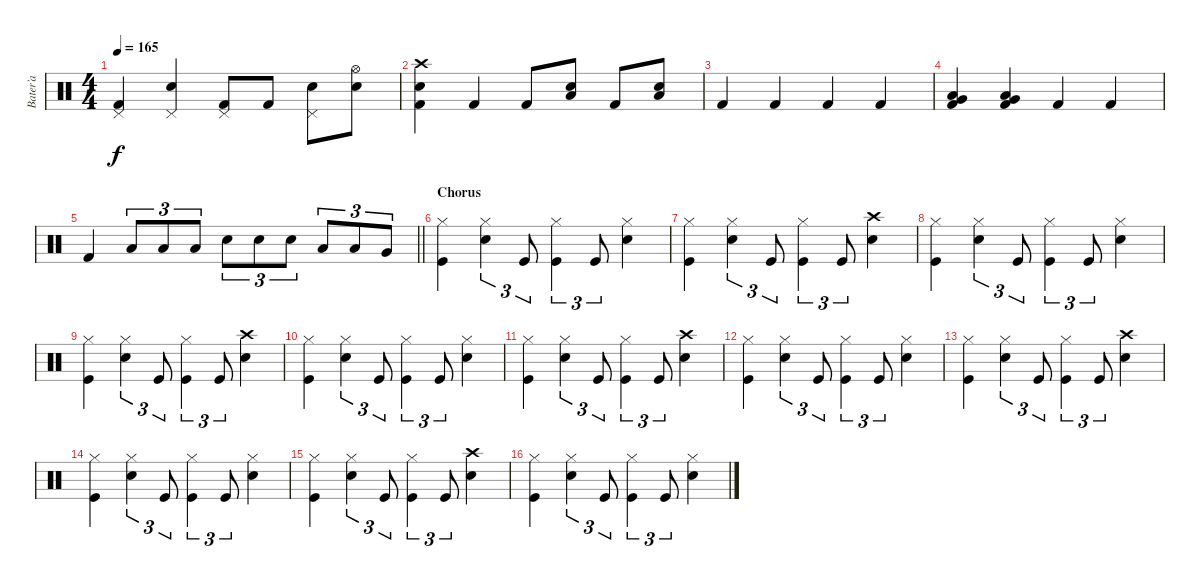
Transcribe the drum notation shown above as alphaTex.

\track ("Bater’a" "Bater’a") {instrument percussion}
\staff {score}
\articulation defaults
\ts (4 4)
\tempo 165
\clef neutral
\ks c
("Pedal Hi-Hat (hit)" "Kick (hit) 2").4{dy f} ("Pedal Hi-Hat (hit)" "Electric Snare (hit)").4 ("Pedal Hi-Hat (hit)" "Kick (hit) 2").8 "Kick (hit) 2".8 ("Pedal Hi-Hat (hit)" "Electric Snare (hit)").8 ("Hi-Hat (open)" "Electric Snare (hit)").8 |
("Crash high (hit)" "Electric Snare (hit)" "Kick (hit) 2").4 "Kick (hit) 2".4 "Kick (hit) 2".8 ("Electric Snare (hit)" "Low Floor Tom (hit)").8 "Kick (hit) 2".8 ("Electric Snare (hit)" "Low Floor Tom (hit)").8 |
"Kick (hit) 2".4 "Kick (hit) 2".4 "Kick (hit) 2".4 "Kick (hit) 2".4 |
("Very Low Tom (hit)" "Low Floor Tom (hit)" "Kick (hit) 2").4 ("Very Low Tom (hit)" "Low Floor Tom (hit)" "Kick (hit) 2").4 "Kick (hit) 2".4 "Kick (hit) 2".4 |
\barLineRight lightlight "Kick (hit) 2".4 "Low Tom (hit)".8{tu (3 2)} "Low Tom (hit)".8{tu (3 2)} "Low Tom (hit)".8{tu (3 2)} "Electric Snare (hit)".8{tu (3 2)} "Electric Snare (hit)".8{tu (3 2)} "Electric Snare (hit)".8{tu (3 2)} "Low Tom (hit)".8{tu (3 2)} "Low Tom (hit)".8{tu (3 2)} "Very Low Tom (hit)".8{tu (3 2)}
|
\section ("" "Chorus")
("Hi-Hat (closed)" "Kick (hit)").4 ("Hi-Hat (closed)" "Snare (hit) 2").4{tu (3 2)} "Kick (hit)".8{tu (3 2)} ("Hi-Hat (closed)" "Kick (hit)").4{tu (3 2)} "Kick (hit)".8{tu (3 2)} ("Hi-Hat (closed)" "Snare (hit) 2").4 |
("Hi-Hat (closed)" "Kick (hit)").4 ("Hi-Hat (closed)" "Snare (hit) 2").4{tu (3 2)} "Kick (hit)".8{tu (3 2)} ("Hi-Hat (closed)" "Kick (hit)").4{tu (3 2)} "Kick (hit)".8{tu (3 2)} ("Crash high (hit)" "Snare (hit) 2").4 |
("Hi-Hat (closed)" "Kick (hit)").4 ("Hi-Hat (closed)" "Snare (hit) 2").4{tu (3 2)} "Kick (hit)".8{tu (3 2)} ("Hi-Hat (closed)" "Kick (hit)").4{tu (3 2)} "Kick (hit)".8{tu (3 2)} ("Hi-Hat (closed)" "Snare (hit) 2").4 |
("Hi-Hat (closed)" "Kick (hit)").4 ("Hi-Hat (closed)" "Snare (hit) 2").4{tu (3 2)} "Kick (hit)".8{tu (3 2)} ("Hi-Hat (closed)" "Kick (hit)").4{tu (3 2)} "Kick (hit)".8{tu (3 2)} ("Crash high (hit)" "Snare (hit) 2").4 |
("Hi-Hat (closed)" "Kick (hit)").4 ("Hi-Hat (closed)" "Snare (hit) 2").4{tu (3 2)} "Kick (hit)".8{tu (3 2)} ("Hi-Hat (closed)" "Kick (hit)").4{tu (3 2)} "Kick (hit)".8{tu (3 2)} ("Hi-Hat (closed)" "Snare (hit) 2").4 |
("Hi-Hat (closed)" "Kick (hit)").4 ("Hi-Hat (closed)" "Snare (hit) 2").4{tu (3 2)} "Kick (hit)".8{tu (3 2)} ("Hi-Hat (closed)" "Kick (hit)").4{tu (3 2)} "Kick (hit)".8{tu (3 2)} ("Crash high (hit)" "Snare (hit) 2").4 |
("Hi-Hat (closed)" "Kick (hit)").4 ("Hi-Hat (closed)" "Snare (hit) 2").4{tu (3 2)} "Kick (hit)".8{tu (3 2)} ("Hi-Hat (closed)" "Kick (hit)").4{tu (3 2)} "Kick (hit)".8{tu (3 2)} ("Hi-Hat (closed)" "Snare (hit) 2").4 |
("Hi-Hat (closed)" "Kick (hit)").4 ("Hi-Hat (closed)" "Snare (hit) 2").4{tu (3 2)} "Kick (hit)".8{tu (3 2)} ("Hi-Hat (closed)" "Kick (hit)").4{tu (3 2)} "Kick (hit)".8{tu (3 2)} ("Crash high (hit)" "Snare (hit) 2").4 |
("Hi-Hat (closed)" "Kick (hit)").4 ("Hi-Hat (closed)" "Snare (hit) 2").4{tu (3 2)} "Kick (hit)".8{tu (3 2)} ("Hi-Hat (closed)" "Kick (hit)").4{tu (3 2)} "Kick (hit)".8{tu (3 2)} ("Hi-Hat (closed)" "Snare (hit) 2").4 |
("Hi-Hat (closed)" "Kick (hit)").4 ("Hi-Hat (closed)" "Snare (hit) 2").4{tu (3 2)} "Kick (hit)".8{tu (3 2)} ("Hi-Hat (closed)" "Kick (hit)").4{tu (3 2)} "Kick (hit)".8{tu (3 2)} ("Crash high (hit)" "Snare (hit) 2").4 |
("Hi-Hat (closed)" "Kick (hit)").4 ("Hi-Hat (closed)" "Snare (hit) 2").4{tu (3 2)} "Kick (hit)".8{tu (3 2)} ("Hi-Hat (closed)" "Kick (hit)").4{tu (3 2)} "Kick (hit)".8{tu (3 2)} ("Hi-Hat (closed)" "Snare (hit) 2").4
